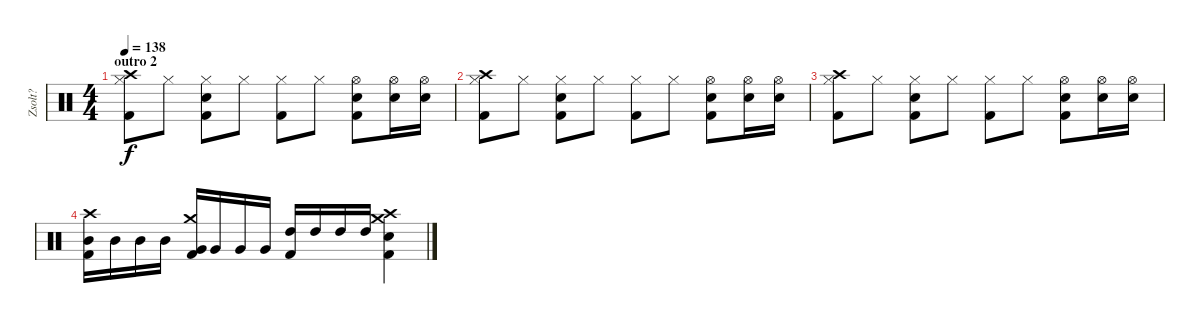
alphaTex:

\track ("Zsolt?" "Zsolt?") {instrument percussion}
\staff {score}
\articulation defaults
\ts (4 4)
\section ("" "outro 2")
\tempo 138
\clef neutral
\ks c
("Hi-Hat (closed)" "Crash high (hit)" "Kick (hit) 2").8{dy f} "Hi-Hat (closed)".8 ("Hi-Hat (closed)" "Snare (hit) 2" "Kick (hit) 2").8 "Hi-Hat (closed)".8 ("Hi-Hat (closed)" "Kick (hit) 2").8 "Hi-Hat (closed)".8 ("Hi-Hat (open)" "Snare (hit) 2" "Kick (hit) 2").8 ("Hi-Hat (open)" "Snare (hit) 2").16 ("Hi-Hat (open)" "Snare (hit) 2").16 |
("Hi-Hat (closed)" "Crash high (hit)" "Kick (hit) 2").8 "Hi-Hat (closed)".8 ("Hi-Hat (closed)" "Snare (hit) 2" "Kick (hit) 2").8 "Hi-Hat (closed)".8 ("Hi-Hat (closed)" "Kick (hit) 2").8 "Hi-Hat (closed)".8 ("Hi-Hat (open)" "Snare (hit) 2" "Kick (hit) 2").8 ("Hi-Hat (open)" "Snare (hit) 2").16 ("Hi-Hat (open)" "Snare (hit) 2").16 |
("Hi-Hat (closed)" "Crash high (hit)" "Kick (hit) 2").8 "Hi-Hat (closed)".8 ("Hi-Hat (closed)" "Snare (hit) 2" "Kick (hit) 2").8 "Hi-Hat (closed)".8 ("Hi-Hat (closed)" "Kick (hit) 2").8 "Hi-Hat (closed)".8 ("Hi-Hat (open)" "Snare (hit) 2" "Kick (hit) 2").8 ("Hi-Hat (open)" "Snare (hit) 2").16 ("Hi-Hat (open)" "Snare (hit) 2").16 |
("Crash high (hit)" "Mid Tom (hit)" "Kick (hit) 2").16 "Mid Tom (hit)".16 "Mid Tom (hit)".16 "Mid Tom (hit)".16 ("Crash medium (hit)" "Very Low Tom (hit)" "Kick (hit) 2").16 "Very Low Tom (hit)".16 "Very Low Tom (hit)".16 "Very Low Tom (hit)".16 ("High Tom (hit)" "Kick (hit) 2").16 "High Tom (hit)".16 "High Tom (hit)".16 "High Tom (hit)".16 ("Crash medium (hit)" "Crash high (hit)" "Snare (hit) 2" "Kick (hit) 2").4
